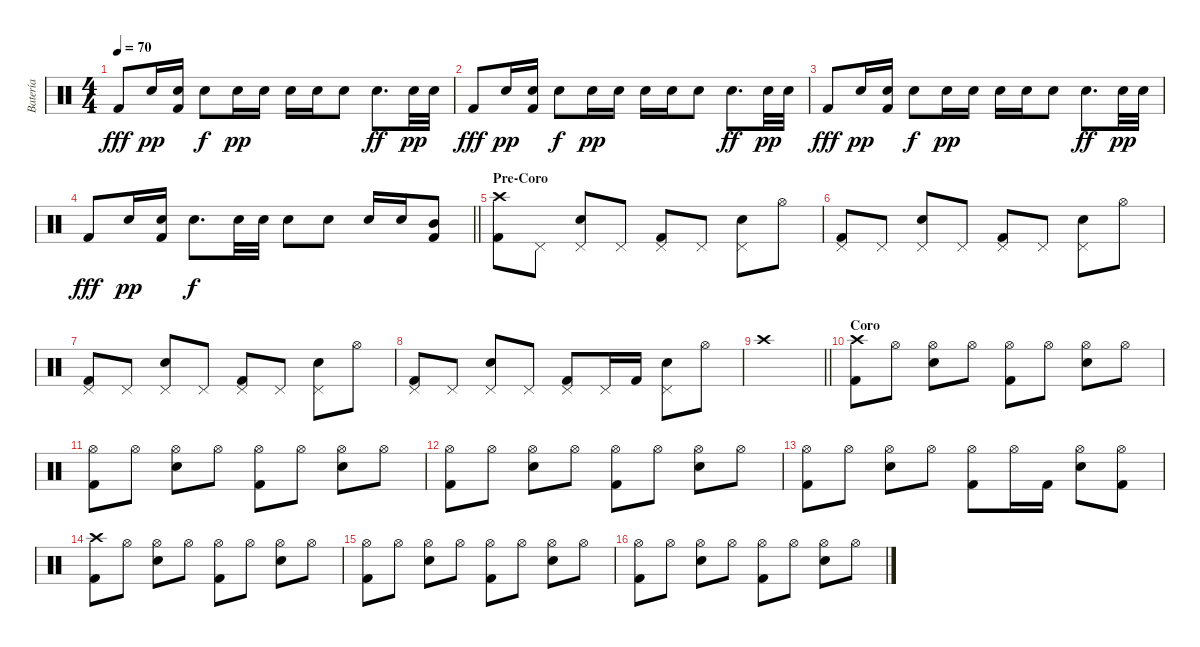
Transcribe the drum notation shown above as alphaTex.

\track ("Batería" "Batería") {instrument percussion}
\staff {score}
\articulation defaults
\ts (4 4)
\tempo 70
\clef neutral
\ks c "Kick (hit) 2".8{dy fff} "Snare (hit) 2".16{dy pp}
("Kick (hit) 2" "Snare (hit) 2").16 "Snare (hit) 2".8{dy f} "Snare (hit) 2".16{dy pp} "Snare (hit) 2".16 "Snare (hit) 2".16 "Snare (hit) 2".16 "Snare (hit) 2".8 "Snare (hit) 2".8{d dy ff} "Snare (hit) 2".32{dy pp} "Snare (hit) 2".32 |
"Kick (hit) 2".8{dy fff} "Snare (hit) 2".16{dy pp} ("Kick (hit) 2" "Snare (hit) 2").16 "Snare (hit) 2".8{dy f} "Snare (hit) 2".16{dy pp} "Snare (hit) 2".16 "Snare (hit) 2".16 "Snare (hit) 2".16 "Snare (hit) 2".8 "Snare (hit) 2".8{d dy ff} "Snare (hit) 2".32{dy pp} "Snare (hit) 2".32 |
"Kick (hit) 2".8{dy fff} "Snare (hit) 2".16{dy pp} ("Kick (hit) 2" "Snare (hit) 2").16 "Snare (hit) 2".8{dy f} "Snare (hit) 2".16{dy pp} "Snare (hit) 2".16 "Snare (hit) 2".16 "Snare (hit) 2".16 "Snare (hit) 2".8 "Snare (hit) 2".8{d dy ff} "Snare (hit) 2".32{dy pp} "Snare (hit) 2".32 |
\barLineRight lightlight "Kick (hit) 2".8{dy fff} "Snare (hit) 2".16{dy pp}
("Kick (hit) 2" "Snare (hit) 2").16 "Snare (hit) 2".8{d dy f} "Snare (hit) 2".32 "Snare (hit) 2".32 "Snare (hit) 2".8 "Snare (hit) 2".8 "Snare (hit) 2".16 "Snare (hit) 2".16 ("Mid Tom (hit)" "Kick (hit) 2").8 |
\section ("" "Pre-Coro")
("Crash high (hit)" "Kick (hit) 2").8 "Pedal Hi-Hat (hit)".8 ("Pedal Hi-Hat (hit)" "Snare (hit) 2").8 "Pedal Hi-Hat (hit)".8 ("Pedal Hi-Hat (hit)" "Kick (hit) 2").8 "Pedal Hi-Hat (hit)".8 ("Pedal Hi-Hat (hit)" "Snare (hit) 2").8 "Hi-Hat (open)".8 |
("Kick (hit) 2" "Pedal Hi-Hat (hit)").8 "Pedal Hi-Hat (hit)".8 ("Pedal Hi-Hat (hit)" "Snare (hit) 2").8 "Pedal Hi-Hat (hit)".8 ("Pedal Hi-Hat (hit)" "Kick (hit) 2").8 "Pedal Hi-Hat (hit)".8 ("Pedal Hi-Hat (hit)" "Snare (hit) 2").8 "Hi-Hat (open)".8 |
("Kick (hit) 2" "Pedal Hi-Hat (hit)").8 "Pedal Hi-Hat (hit)".8 ("Pedal Hi-Hat (hit)" "Snare (hit) 2").8 "Pedal Hi-Hat (hit)".8 ("Pedal Hi-Hat (hit)" "Kick (hit) 2").8 "Pedal Hi-Hat (hit)".8 ("Pedal Hi-Hat (hit)" "Snare (hit) 2").8 "Hi-Hat (open)".8 |
("Pedal Hi-Hat (hit)" "Kick (hit) 2").8 "Pedal Hi-Hat (hit)".8 ("Snare (hit) 2" "Pedal Hi-Hat (hit)").8 "Pedal Hi-Hat (hit)".8 ("Pedal Hi-Hat (hit)" "Kick (hit) 2").8 "Pedal Hi-Hat (hit)".16 "Kick (hit) 2".16 ("Snare (hit) 2" "Pedal Hi-Hat (hit)").8 "Hi-Hat (open)".8 |
\barLineRight lightlight "Crash high (hit)".1
|
\section ("" "Coro")
("Kick (hit) 2" "Crash high (hit)").8 "Hi-Hat (open)".8 ("Snare (hit) 2" "Hi-Hat (open)").8 "Hi-Hat (open)".8 ("Hi-Hat (open)" "Kick (hit) 2").8 "Hi-Hat (open)".8 ("Hi-Hat (open)" "Snare (hit) 2").8 "Hi-Hat (open)".8 |
("Hi-Hat (open)" "Kick (hit) 2").8 "Hi-Hat (open)".8 ("Snare (hit) 2" "Hi-Hat (open)").8 "Hi-Hat (open)".8 ("Hi-Hat (open)" "Kick (hit) 2").8 "Hi-Hat (open)".8 ("Hi-Hat (open)" "Snare (hit) 2").8 "Hi-Hat (open)".8 |
("Hi-Hat (open)" "Kick (hit) 2").8 "Hi-Hat (open)".8 ("Snare (hit) 2" "Hi-Hat (open)").8 "Hi-Hat (open)".8 ("Hi-Hat (open)" "Kick (hit) 2").8 "Hi-Hat (open)".8 ("Hi-Hat (open)" "Snare (hit) 2").8 "Hi-Hat (open)".8 |
("Hi-Hat (open)" "Kick (hit) 2").8 "Hi-Hat (open)".8 ("Snare (hit) 2" "Hi-Hat (open)").8 "Hi-Hat (open)".8 ("Hi-Hat (open)" "Kick (hit) 2").8 "Hi-Hat (open)".16 "Kick (hit) 2".16 ("Snare (hit) 2" "Hi-Hat (open)").8 ("Kick (hit) 2" "Hi-Hat (open)").8 |
("Kick (hit) 2" "Crash high (hit)").8 "Hi-Hat (open)".8 ("Snare (hit) 2" "Hi-Hat (open)").8 "Hi-Hat (open)".8 ("Hi-Hat (open)" "Kick (hit) 2").8 "Hi-Hat (open)".8 ("Hi-Hat (open)" "Snare (hit) 2").8 "Hi-Hat (open)".8 |
("Hi-Hat (open)" "Kick (hit) 2").8 "Hi-Hat (open)".8 ("Snare (hit) 2" "Hi-Hat (open)").8 "Hi-Hat (open)".8 ("Hi-Hat (open)" "Kick (hit) 2").8 "Hi-Hat (open)".8 ("Hi-Hat (open)" "Snare (hit) 2").8 "Hi-Hat (open)".8 |
("Hi-Hat (open)" "Kick (hit) 2").8 "Hi-Hat (open)".8 ("Snare (hit) 2" "Hi-Hat (open)").8 "Hi-Hat (open)".8 ("Hi-Hat (open)" "Kick (hit) 2").8 "Hi-Hat (open)".8 ("Hi-Hat (open)" "Snare (hit) 2").8 "Hi-Hat (open)".8
